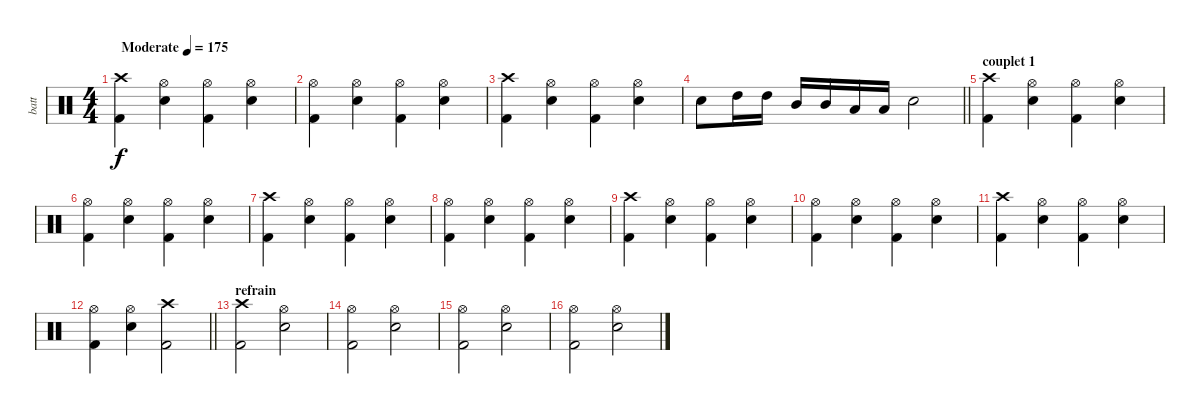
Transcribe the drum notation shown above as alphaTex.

\track ("batt" "batt") {instrument percussion}
\staff {score}
\articulation defaults
\ts (4 4)
\tempo (175 "Moderate")
\clef neutral
\ks c
("Crash high (hit)" "Kick (hit) 2").4{dy f} ("Hi-Hat (open)" "Electric Snare (hit)").4 ("Hi-Hat (open)" "Kick (hit) 2").4 ("Hi-Hat (open)" "Electric Snare (hit)").4 |
("Hi-Hat (open)" "Kick (hit) 2").4 ("Hi-Hat (open)" "Electric Snare (hit)").4 ("Hi-Hat (open)" "Kick (hit) 2").4 ("Hi-Hat (open)" "Electric Snare (hit)").4 |
("Crash high (hit)" "Kick (hit) 2").4 ("Hi-Hat (open)" "Electric Snare (hit)").4 ("Hi-Hat (open)" "Kick (hit) 2").4 ("Hi-Hat (open)" "Electric Snare (hit)").4 |
\barLineRight lightlight "Electric Snare (hit)".8 "High Tom (hit)".16 "High Tom (hit)".16 "Mid Tom (hit)".16 "Mid Tom (hit)".16 "Low Tom (hit)".16 "Low Tom (hit)".16 "Electric Snare (hit)".2
|
\section ("" "couplet 1")
("Crash high (hit)" "Kick (hit) 2").4 ("Hi-Hat (open)" "Electric Snare (hit)").4 ("Hi-Hat (open)" "Kick (hit) 2").4 ("Hi-Hat (open)" "Electric Snare (hit)").4 |
("Hi-Hat (open)" "Kick (hit) 2").4 ("Hi-Hat (open)" "Electric Snare (hit)").4 ("Hi-Hat (open)" "Kick (hit) 2").4 ("Hi-Hat (open)" "Electric Snare (hit)").4 |
("Crash high (hit)" "Kick (hit) 2").4 ("Hi-Hat (open)" "Electric Snare (hit)").4 ("Hi-Hat (open)" "Kick (hit) 2").4 ("Hi-Hat (open)" "Electric Snare (hit)").4 |
("Hi-Hat (open)" "Kick (hit) 2").4 ("Hi-Hat (open)" "Electric Snare (hit)").4 ("Hi-Hat (open)" "Kick (hit) 2").4 ("Hi-Hat (open)" "Electric Snare (hit)").4 |
("Crash high (hit)" "Kick (hit) 2").4 ("Hi-Hat (open)" "Electric Snare (hit)").4 ("Hi-Hat (open)" "Kick (hit) 2").4 ("Hi-Hat (open)" "Electric Snare (hit)").4 |
("Hi-Hat (open)" "Kick (hit) 2").4 ("Hi-Hat (open)" "Electric Snare (hit)").4 ("Hi-Hat (open)" "Kick (hit) 2").4 ("Hi-Hat (open)" "Electric Snare (hit)").4 |
("Crash high (hit)" "Kick (hit) 2").4 ("Hi-Hat (open)" "Electric Snare (hit)").4 ("Hi-Hat (open)" "Kick (hit) 2").4 ("Hi-Hat (open)" "Electric Snare (hit)").4 |
\barLineRight lightlight
("Hi-Hat (open)" "Kick (hit) 2").4 ("Hi-Hat (open)" "Electric Snare (hit)").4 ("Crash high (hit)" "Kick (hit) 2").2 |
\section ("" "refrain")
("Crash high (hit)" "Kick (hit) 2").2 ("Hi-Hat (open)" "Electric Snare (hit)").2 |
("Hi-Hat (open)" "Kick (hit) 2").2 ("Hi-Hat (open)" "Electric Snare (hit)").2 |
("Hi-Hat (open)" "Kick (hit) 2").2 ("Hi-Hat (open)" "Electric Snare (hit)").2 |
("Hi-Hat (open)" "Kick (hit) 2").2 ("Hi-Hat (open)" "Electric Snare (hit)").2
